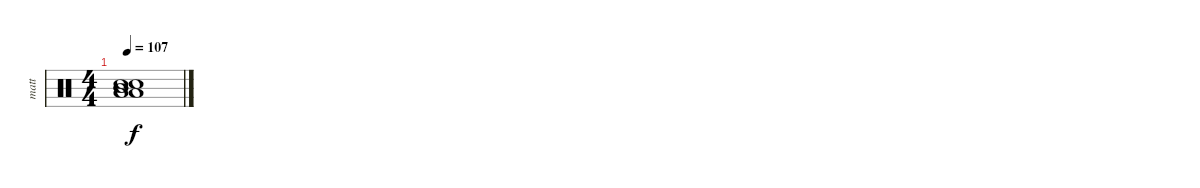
\track ("matt" "matt") {instrument percussion}
\staff {score}
\articulation defaults
\ts (4 4)
\tempo 107
\clef neutral
\ks c
("Mid Tom (hit)" "Mid Tom (hit)" "Low Tom (hit)" "Low Tom (hit)" "Snare (hit) 2" "Snare (hit) 2").1{dy f}
